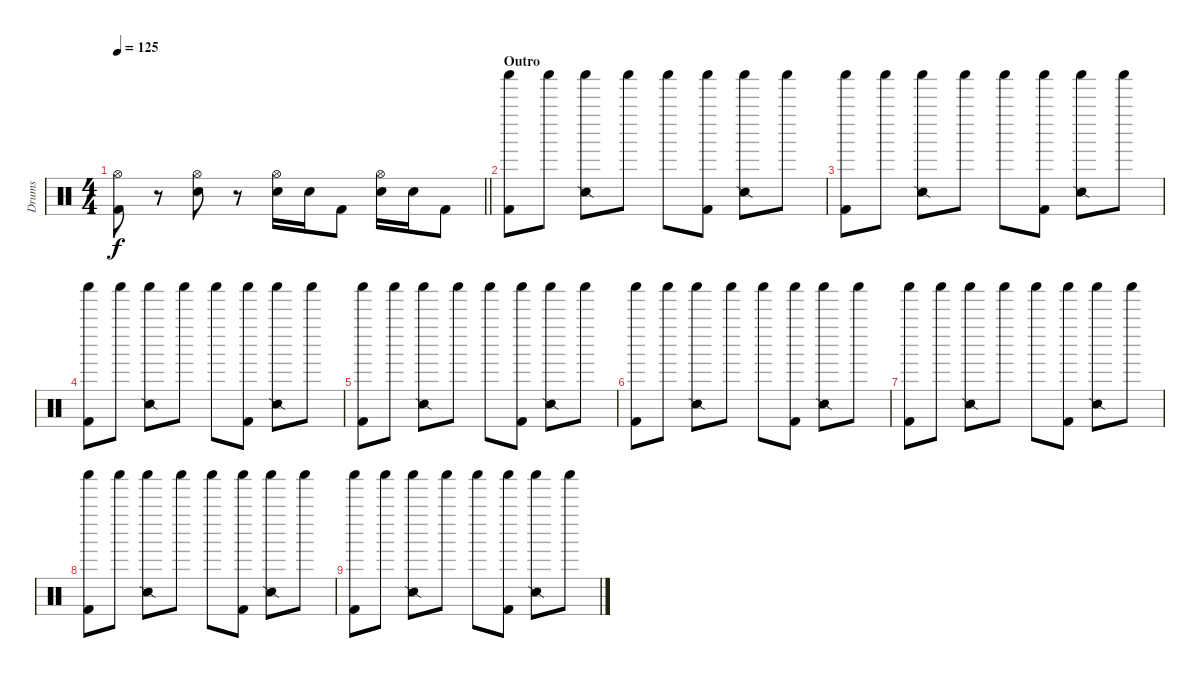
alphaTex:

\track ("Drums" "Drums") {instrument percussion}
\staff {score}
\articulation defaults
\ts (4 4)
\tempo 125
\clef neutral
\barLineRight lightlight
\ks c
("Hi-Hat (open)" "Kick (hit) 2").8{dy f} r.8 ("Hi-Hat (open)" "Electric Snare (hit)").8 r.8 ("Hi-Hat (open)" "Electric Snare (hit)").16 "Electric Snare (hit)".16 "Kick (hit) 2".8 ("Hi-Hat (open)" "Electric Snare (hit)").16 "Electric Snare (hit)".16 "Kick (hit) 2".8 |
\section ("" "Outro")
("Shaker (hit)" "Kick (hit) 2").8 "Shaker (hit)".8 ("Shaker (hit)" "Snare (side stick) 2").8 "Shaker (hit)".8 "Shaker (hit)".8 ("Shaker (hit)" "Kick (hit) 2").8 ("Shaker (hit)" "Snare (side stick) 2").8 "Shaker (hit)".8 |
("Shaker (hit)" "Kick (hit) 2").8 "Shaker (hit)".8 ("Shaker (hit)" "Snare (side stick) 2").8 "Shaker (hit)".8 "Shaker (hit)".8 ("Shaker (hit)" "Kick (hit) 2").8 ("Shaker (hit)" "Snare (side stick) 2").8 "Shaker (hit)".8 |
("Shaker (hit)" "Kick (hit) 2").8 "Shaker (hit)".8 ("Shaker (hit)" "Snare (side stick) 2").8 "Shaker (hit)".8 "Shaker (hit)".8 ("Shaker (hit)" "Kick (hit) 2").8 ("Shaker (hit)" "Snare (side stick) 2").8 "Shaker (hit)".8 |
("Shaker (hit)" "Kick (hit) 2").8 "Shaker (hit)".8 ("Shaker (hit)" "Snare (side stick) 2").8 "Shaker (hit)".8 "Shaker (hit)".8 ("Shaker (hit)" "Kick (hit) 2").8 ("Shaker (hit)" "Snare (side stick) 2").8 "Shaker (hit)".8 |
("Shaker (hit)" "Kick (hit) 2").8 "Shaker (hit)".8 ("Shaker (hit)" "Snare (side stick) 2").8 "Shaker (hit)".8 "Shaker (hit)".8 ("Shaker (hit)" "Kick (hit) 2").8 ("Shaker (hit)" "Snare (side stick) 2").8 "Shaker (hit)".8 |
("Shaker (hit)" "Kick (hit) 2").8 "Shaker (hit)".8 ("Shaker (hit)" "Snare (side stick) 2").8 "Shaker (hit)".8 "Shaker (hit)".8 ("Shaker (hit)" "Kick (hit) 2").8 ("Shaker (hit)" "Snare (side stick) 2").8 "Shaker (hit)".8 |
("Shaker (hit)" "Kick (hit) 2").8 "Shaker (hit)".8 ("Shaker (hit)" "Snare (side stick) 2").8 "Shaker (hit)".8 "Shaker (hit)".8 ("Shaker (hit)" "Kick (hit) 2").8 ("Shaker (hit)" "Snare (side stick) 2").8 "Shaker (hit)".8 |
("Shaker (hit)" "Kick (hit) 2").8 "Shaker (hit)".8 ("Shaker (hit)" "Snare (side stick) 2").8 "Shaker (hit)".8 "Shaker (hit)".8 ("Shaker (hit)" "Kick (hit) 2").8 ("Shaker (hit)" "Snare (side stick) 2").8 "Shaker (hit)".8
